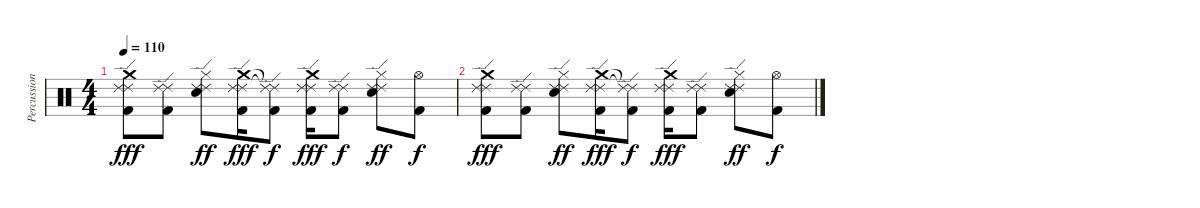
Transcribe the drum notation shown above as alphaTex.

\track ("Percussions" "Percussion") {instrument percussion}
\staff {score}
\articulation defaults
\ts (4 4)
\tempo 110
\clef neutral
\ks c
("Crash medium (hit)" "Ride (edge) 2" "Ride (edge) 2" "Kick (hit) 2").8{dy fff volume 0} ("Ride (edge) 2" "Ride (edge) 2" "Kick (hit) 2").8 ("Hi-Hat (closed)" "Ride (edge) 2" "Ride (edge) 2" "Snare (hit) 2").8{dy ff} ("Crash medium (hit)" "Ride (edge) 2" "Ride (edge) 2" "Kick (hit) 2").16{dy fff} ("Ride (edge) 2"{t} "Ride (edge) 2"{t} "Kick (hit) 2").8{dy f} ("Crash medium (hit)" "Ride (edge) 2" "Ride (edge) 2" "Kick (hit) 2").16{dy fff} ("Ride (edge) 2" "Ride (edge) 2" "Kick (hit) 2").8{dy f} ("Hi-Hat (closed)" "Ride (edge) 2" "Ride (edge) 2" "Snare (hit) 2").8{dy ff} ("Hi-Hat (open)" "Kick (hit) 2").8{dy f} |
("Crash medium (hit)" "Ride (edge) 2" "Ride (edge) 2" "Kick (hit) 2").8{dy fff} ("Ride (edge) 2" "Ride (edge) 2" "Kick (hit) 2").8 ("Hi-Hat (closed)" "Ride (edge) 2" "Ride (edge) 2" "Snare (hit) 2").8{dy ff} ("Crash medium (hit)" "Ride (edge) 2" "Ride (edge) 2" "Kick (hit) 2").16{dy fff} ("Ride (edge) 2"{t} "Ride (edge) 2"{t} "Kick (hit) 2").8{dy f} ("Crash medium (hit)" "Ride (edge) 2" "Ride (edge) 2" "Kick (hit) 2").16{dy fff} ("Ride (edge) 2" "Ride (edge) 2" "Kick (hit) 2").8 ("Hi-Hat (closed)" "Ride (edge) 2" "Ride (edge) 2" "Snare (hit) 2").8{dy ff} ("Hi-Hat (open)" "Kick (hit) 2").8{dy f}
